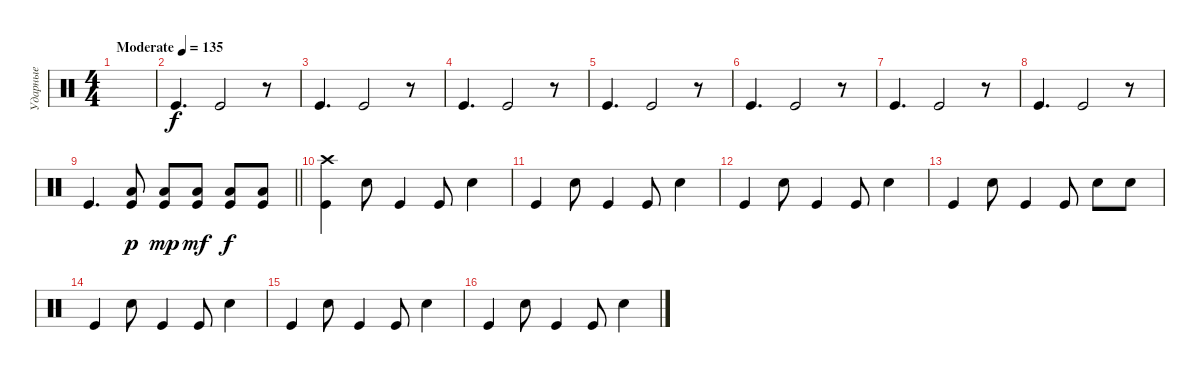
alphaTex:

\track ("Ударные" "Ударные") {instrument percussion}
\staff
\articulation defaults
\ts (4 4)
\tempo (135 "Moderate")
\clef neutral
\ks c
|
"Kick (hit)".4{d} "Kick (hit)".2 r.8 |
"Kick (hit)".4{d} "Kick (hit)".2 r.8 |
"Kick (hit)".4{d} "Kick (hit)".2 r.8 |
"Kick (hit)".4{d} "Kick (hit)".2 r.8 |
"Kick (hit)".4{d} "Kick (hit)".2 r.8 |
"Kick (hit)".4{d} "Kick (hit)".2 r.8 |
"Kick (hit)".4{d} "Kick (hit)".2 r.8 |
\barLineRight lightlight "Kick (hit)".4{d}
("Low Floor Tom (hit)" "Kick (hit)").8{dy p} ("Low Floor Tom (hit)" "Kick (hit)").8{dy mp} ("Low Floor Tom (hit)" "Kick (hit)").8{dy mf} ("Low Floor Tom (hit)" "Kick (hit)").8{dy f} ("Low Floor Tom (hit)" "Kick (hit)").8 |
("Crash high (hit)" "Kick (hit)").4 "Snare (hit) 2".8 "Kick (hit)".4 "Kick (hit)".8 "Snare (hit) 2".4 |
"Kick (hit)".4 "Snare (hit) 2".8 "Kick (hit)".4 "Kick (hit)".8 "Snare (hit) 2".4 |
"Kick (hit)".4 "Snare (hit) 2".8 "Kick (hit)".4 "Kick (hit)".8 "Snare (hit) 2".4 |
"Kick (hit)".4 "Snare (hit) 2".8 "Kick (hit)".4 "Kick (hit)".8 "Snare (hit) 2".8 "Snare (hit) 2".8 |
"Kick (hit)".4 "Snare (hit) 2".8 "Kick (hit)".4 "Kick (hit)".8 "Snare (hit) 2".4 |
"Kick (hit)".4 "Snare (hit) 2".8 "Kick (hit)".4 "Kick (hit)".8 "Snare (hit) 2".4 |
"Kick (hit)".4 "Snare (hit) 2".8 "Kick (hit)".4 "Kick (hit)".8 "Snare (hit) 2".4
